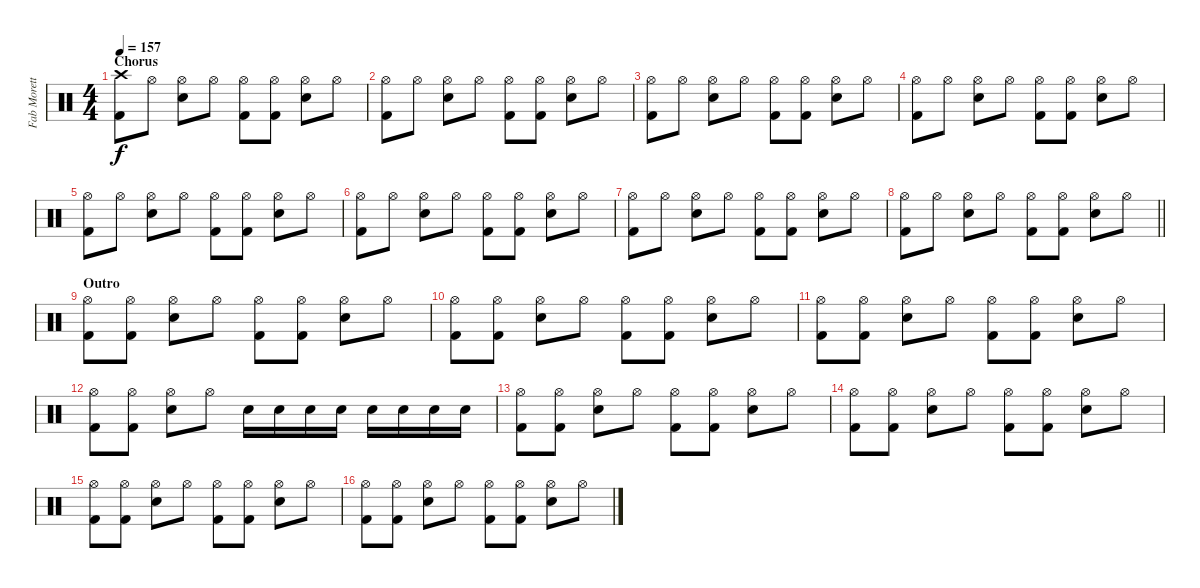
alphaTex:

\track ("Fab Moretti - Drums" "Fab Morett") {instrument percussion bank 177}
\staff {score}
\articulation defaults
\ts (4 4)
\section ("" "Chorus")
\tempo 157
\clef neutral
\ks c
("Crash high (hit)" "Kick (hit) 2").8{dy f} "Hi-Hat (open)".8 ("Hi-Hat (open)" "Electric Snare (hit)").8 "Hi-Hat (open)".8 ("Hi-Hat (open)" "Kick (hit) 2").8 ("Hi-Hat (open)" "Kick (hit) 2").8 ("Hi-Hat (open)" "Electric Snare (hit)").8 "Hi-Hat (open)".8 |
("Hi-Hat (open)" "Kick (hit) 2").8 "Hi-Hat (open)".8 ("Hi-Hat (open)" "Electric Snare (hit)").8 "Hi-Hat (open)".8 ("Hi-Hat (open)" "Kick (hit) 2").8 ("Hi-Hat (open)" "Kick (hit) 2").8 ("Hi-Hat (open)" "Electric Snare (hit)").8 "Hi-Hat (open)".8 |
("Hi-Hat (open)" "Kick (hit) 2").8 "Hi-Hat (open)".8 ("Hi-Hat (open)" "Electric Snare (hit)").8 "Hi-Hat (open)".8 ("Hi-Hat (open)" "Kick (hit) 2").8 ("Hi-Hat (open)" "Kick (hit) 2").8 ("Hi-Hat (open)" "Electric Snare (hit)").8 "Hi-Hat (open)".8 |
("Hi-Hat (open)" "Kick (hit) 2").8 "Hi-Hat (open)".8 ("Hi-Hat (open)" "Electric Snare (hit)").8 "Hi-Hat (open)".8 ("Hi-Hat (open)" "Kick (hit) 2").8 ("Hi-Hat (open)" "Kick (hit) 2").8 ("Hi-Hat (open)" "Electric Snare (hit)").8 "Hi-Hat (open)".8 |
("Hi-Hat (open)" "Kick (hit) 2").8 "Hi-Hat (open)".8 ("Hi-Hat (open)" "Electric Snare (hit)").8 "Hi-Hat (open)".8 ("Hi-Hat (open)" "Kick (hit) 2").8 ("Hi-Hat (open)" "Kick (hit) 2").8 ("Hi-Hat (open)" "Electric Snare (hit)").8 "Hi-Hat (open)".8 |
("Hi-Hat (open)" "Kick (hit) 2").8 "Hi-Hat (open)".8 ("Hi-Hat (open)" "Electric Snare (hit)").8 "Hi-Hat (open)".8 ("Hi-Hat (open)" "Kick (hit) 2").8 ("Hi-Hat (open)" "Kick (hit) 2").8 ("Hi-Hat (open)" "Electric Snare (hit)").8 "Hi-Hat (open)".8 |
("Hi-Hat (open)" "Kick (hit) 2").8 "Hi-Hat (open)".8 ("Hi-Hat (open)" "Electric Snare (hit)").8 "Hi-Hat (open)".8 ("Hi-Hat (open)" "Kick (hit) 2").8 ("Hi-Hat (open)" "Kick (hit) 2").8 ("Hi-Hat (open)" "Electric Snare (hit)").8 "Hi-Hat (open)".8 |
\barLineRight lightlight
("Hi-Hat (open)" "Kick (hit) 2").8 "Hi-Hat (open)".8 ("Hi-Hat (open)" "Electric Snare (hit)").8 "Hi-Hat (open)".8 ("Hi-Hat (open)" "Kick (hit) 2").8 ("Hi-Hat (open)" "Kick (hit) 2").8 ("Hi-Hat (open)" "Electric Snare (hit)").8 "Hi-Hat (open)".8 |
\section ("" "Outro")
("Hi-Hat (open)" "Kick (hit) 2").8 ("Hi-Hat (open)" "Kick (hit) 2").8 ("Hi-Hat (open)" "Electric Snare (hit)").8 "Hi-Hat (open)".8 ("Hi-Hat (open)" "Kick (hit) 2").8 ("Hi-Hat (open)" "Kick (hit) 2").8 ("Hi-Hat (open)" "Electric Snare (hit)").8 "Hi-Hat (open)".8 |
("Hi-Hat (open)" "Kick (hit) 2").8 ("Hi-Hat (open)" "Kick (hit) 2").8 ("Hi-Hat (open)" "Electric Snare (hit)").8 "Hi-Hat (open)".8 ("Hi-Hat (open)" "Kick (hit) 2").8 ("Hi-Hat (open)" "Kick (hit) 2").8 ("Hi-Hat (open)" "Electric Snare (hit)").8 "Hi-Hat (open)".8 |
("Hi-Hat (open)" "Kick (hit) 2").8 ("Hi-Hat (open)" "Kick (hit) 2").8 ("Hi-Hat (open)" "Electric Snare (hit)").8 "Hi-Hat (open)".8 ("Hi-Hat (open)" "Kick (hit) 2").8 ("Hi-Hat (open)" "Kick (hit) 2").8 ("Hi-Hat (open)" "Electric Snare (hit)").8 "Hi-Hat (open)".8 |
("Hi-Hat (open)" "Kick (hit) 2").8 ("Hi-Hat (open)" "Kick (hit) 2").8 ("Hi-Hat (open)" "Electric Snare (hit)").8 "Hi-Hat (open)".8 "Electric Snare (hit)".16 "Electric Snare (hit)".16 "Electric Snare (hit)".16 "Electric Snare (hit)".16 "Electric Snare (hit)".16 "Electric Snare (hit)".16 "Electric Snare (hit)".16 "Electric Snare (hit)".16 |
("Hi-Hat (open)" "Kick (hit) 2").8 ("Hi-Hat (open)" "Kick (hit) 2").8 ("Hi-Hat (open)" "Electric Snare (hit)").8 "Hi-Hat (open)".8 ("Hi-Hat (open)" "Kick (hit) 2").8 ("Hi-Hat (open)" "Kick (hit) 2").8 ("Hi-Hat (open)" "Electric Snare (hit)").8 "Hi-Hat (open)".8 |
("Hi-Hat (open)" "Kick (hit) 2").8 ("Hi-Hat (open)" "Kick (hit) 2").8 ("Hi-Hat (open)" "Electric Snare (hit)").8 "Hi-Hat (open)".8 ("Hi-Hat (open)" "Kick (hit) 2").8 ("Hi-Hat (open)" "Kick (hit) 2").8 ("Hi-Hat (open)" "Electric Snare (hit)").8 "Hi-Hat (open)".8 |
("Hi-Hat (open)" "Kick (hit) 2").8 ("Hi-Hat (open)" "Kick (hit) 2").8 ("Hi-Hat (open)" "Electric Snare (hit)").8 "Hi-Hat (open)".8 ("Hi-Hat (open)" "Kick (hit) 2").8 ("Hi-Hat (open)" "Kick (hit) 2").8 ("Hi-Hat (open)" "Electric Snare (hit)").8 "Hi-Hat (open)".8 |
("Hi-Hat (open)" "Kick (hit) 2").8 ("Hi-Hat (open)" "Kick (hit) 2").8 ("Hi-Hat (open)" "Electric Snare (hit)").8 "Hi-Hat (open)".8 ("Hi-Hat (open)" "Kick (hit) 2").8 ("Hi-Hat (open)" "Kick (hit) 2").8 ("Hi-Hat (open)" "Electric Snare (hit)").8 "Hi-Hat (open)".8
